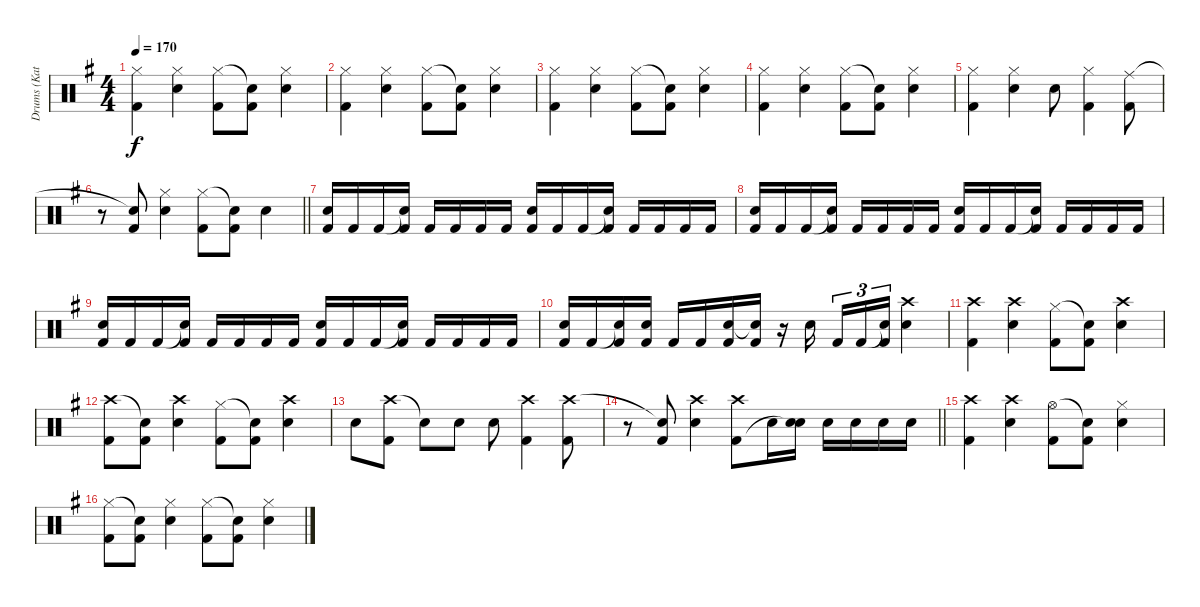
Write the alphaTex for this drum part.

\track ("Drums (Katsuji)" "Drums (Kat") {instrument percussion}
\staff {score}
\articulation defaults
\ts (4 4)
\tempo 170
\clef neutral
\ks g
("Hi-Hat (closed)" "Kick (hit) 2").4{dy f} ("Hi-Hat (closed)" "Snare (hit) 2").4 ("Hi-Hat (closed)" "Kick (hit) 2").8 ("Snare (hit)"{t} "Kick (hit) 2").8 ("Hi-Hat (closed)" "Snare (hit) 2").4 |
("Hi-Hat (closed)" "Kick (hit) 2").4 ("Hi-Hat (closed)" "Snare (hit) 2").4 ("Hi-Hat (closed)" "Kick (hit) 2").8 ("Snare (hit)"{t} "Kick (hit) 2").8 ("Hi-Hat (closed)" "Snare (hit) 2").4 |
("Hi-Hat (closed)" "Kick (hit) 2").4 ("Hi-Hat (closed)" "Snare (hit) 2").4 ("Hi-Hat (closed)" "Kick (hit) 2").8 ("Snare (hit)"{t} "Kick (hit) 2").8 ("Hi-Hat (closed)" "Snare (hit) 2").4 |
("Hi-Hat (closed)" "Kick (hit) 2").4 ("Hi-Hat (closed)" "Snare (hit) 2").4 ("Hi-Hat (closed)" "Kick (hit) 2").8 ("Snare (hit)"{t} "Kick (hit) 2").8 ("Hi-Hat (closed)" "Snare (hit) 2").4 |
("Hi-Hat (closed)" "Kick (hit) 2").4 ("Hi-Hat (closed)" "Snare (hit) 2").4 "Snare (hit) 2".8 ("Hi-Hat (closed)" "Kick (hit) 2").4 ("Ride (middle)" "Kick (hit) 2").8 |
\barLineRight lightlight
r.8 ("Snare (hit)"{t} "Kick (hit) 2").8 ("Hi-Hat (closed)" "Snare (hit) 2").4 ("Hi-Hat (closed)" "Kick (hit) 2").8 ("Snare (hit)"{t} "Kick (hit) 2").8 "Snare (hit) 2".4 |
("Snare (hit) 2" "Kick (hit) 2").16 "Kick (hit) 2".16 "Kick (hit) 2".16 ("Snare (hit)"{t} "Kick (hit) 2").16 "Kick (hit) 2".16 "Kick (hit) 2".16 "Kick (hit) 2".16 "Kick (hit) 2".16 ("Snare (hit) 2" "Kick (hit) 2").16 "Kick (hit) 2".16 "Kick (hit) 2".16 ("Snare (hit)"{t} "Kick (hit) 2").16 "Kick (hit) 2".16 "Kick (hit) 2".16 "Kick (hit) 2".16 "Kick (hit) 2".16 |
("Snare (hit) 2" "Kick (hit) 2").16 "Kick (hit) 2".16 "Kick (hit) 2".16 ("Snare (hit)"{t} "Kick (hit) 2").16 "Kick (hit) 2".16 "Kick (hit) 2".16 "Kick (hit) 2".16 "Kick (hit) 2".16 ("Snare (hit) 2" "Kick (hit) 2").16 "Kick (hit) 2".16 "Kick (hit) 2".16 ("Snare (hit)"{t} "Kick (hit) 2").16 "Kick (hit) 2".16 "Kick (hit) 2".16 "Kick (hit) 2".16 "Kick (hit) 2".16 |
("Snare (hit) 2" "Kick (hit) 2").16 "Kick (hit) 2".16 "Kick (hit) 2".16 ("Snare (hit)"{t} "Kick (hit) 2").16 "Kick (hit) 2".16 "Kick (hit) 2".16 "Kick (hit) 2".16 "Kick (hit) 2".16 ("Snare (hit) 2" "Kick (hit) 2").16 "Kick (hit) 2".16 "Kick (hit) 2".16 ("Snare (hit)"{t} "Kick (hit) 2").16 "Kick (hit) 2".16 "Kick (hit) 2".16 "Kick (hit) 2".16 "Kick (hit) 2".16 |
("Snare (hit) 2" "Kick (hit) 2").16 "Kick (hit) 2".16 ("Snare (hit)"{t} "Kick (hit) 2").16 ("Snare (hit) 2" "Kick (hit) 2").16 "Kick (hit) 2".16 "Kick (hit) 2".16 ("Snare (hit) 2" "Kick (hit) 2").16 ("Snare (hit)"{t} "Kick (hit) 2").16 r.16 "Snare (hit) 2".16 "Kick (hit) 2".16{tu (3 2)} "Kick (hit) 2".16{tu (3 2)} ("Snare (hit)"{t} "Kick (hit) 2").16{tu (3 2)} ("Crash high (hit)" "Snare (hit) 2").4 |
("Crash high (hit)" "Kick (hit) 2").4 ("Crash high (hit)" "Snare (hit) 2").4 ("Hi-Hat (closed)" "Kick (hit) 2").8 ("Snare (hit)"{t} "Kick (hit) 2").8 ("Crash high (hit)" "Snare (hit) 2").4 |
("Crash high (hit)" "Kick (hit) 2").8 ("Snare (hit)"{t} "Kick (hit) 2").8 ("Crash high (hit)" "Snare (hit) 2").4 ("Hi-Hat (closed)" "Kick (hit) 2").8 ("Snare (hit)"{t} "Kick (hit) 2").8 ("Crash high (hit)" "Snare (hit) 2").4 |
"Snare (hit) 2".8 ("Crash high (hit)" "Kick (hit) 2").8 "Snare (hit)"{t}.8 "Snare (hit) 2".8 "Snare (hit) 2".8 ("Crash high (hit)" "Kick (hit) 2").4 ("Crash high (hit)" "Kick (hit) 2").8 |
\barLineRight lightlight
r.8 ("Snare (hit)"{t} "Kick (hit) 2").8 ("Crash high (hit)" "Snare (hit) 2").4 ("Crash high (hit)" "Kick (hit) 2").8 "Snare (hit) 2".16 ("Snare (hit) 2" "Snare (hit)"{t}).16 "Snare (hit) 2".16 "Snare (hit) 2".16 "Snare (hit) 2".16 "Snare (hit) 2".16 |
("Crash high (hit)" "Kick (hit) 2").4 ("Crash high (hit)" "Snare (hit) 2").4 ("Hi-Hat (open)" "Kick (hit) 2").8 ("Snare (hit)"{t} "Kick (hit) 2").8 ("Hi-Hat (closed)" "Snare (hit) 2").4 |
("Hi-Hat (closed)" "Kick (hit) 2").8 ("Snare (hit)"{t} "Kick (hit) 2").8 ("Hi-Hat (closed)" "Snare (hit) 2").4 ("Hi-Hat (closed)" "Kick (hit) 2").8 ("Snare (hit)"{t} "Kick (hit) 2").8 ("Hi-Hat (closed)" "Snare (hit) 2").4
